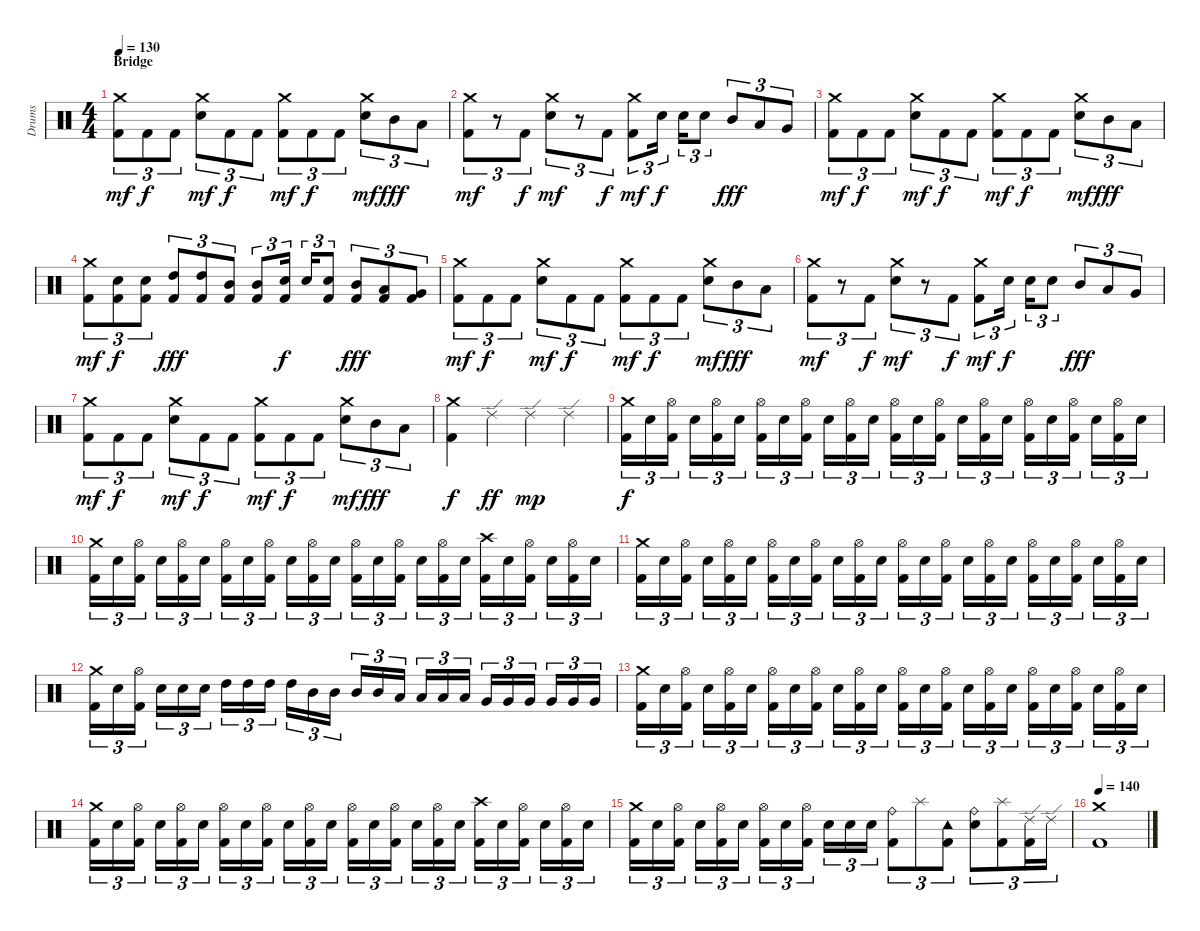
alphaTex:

\track ("Drums" "Drums") {instrument percussion}
\staff {score}
\articulation defaults
\ts (4 4)
\section ("" "Bridge")
\tempo 130
\clef neutral
\ks c
("Kick (hit) 2" "Crash medium (hit)").8{tu (3 2) dy mf volume 10} "Kick (hit) 2".8{tu (3 2) dy f} "Kick (hit) 2".8{tu (3 2)} ("Electric Snare (hit)" "Crash medium (hit)").8{tu (3 2) dy mf} "Kick (hit) 2".8{tu (3 2) dy f} "Kick (hit) 2".8{tu (3 2)} ("Kick (hit) 2" "Crash medium (hit)").8{tu (3 2) dy mf} "Kick (hit) 2".8{tu (3 2) dy f} "Kick (hit) 2".8{tu (3 2)} ("Electric Snare (hit)" "Crash medium (hit)").8{tu (3 2) dy mf} "Mid Tom (hit)".8{tu (3 2) dy fff} "Low Tom (hit)".8{tu (3 2)} |
("Kick (hit) 2" "Crash medium (hit)").8{tu (3 2) dy mf} r.8{tu (3 2)} "Kick (hit) 2".8{tu (3 2) dy f} ("Electric Snare (hit)" "Crash medium (hit)").8{tu (3 2) dy mf} r.8{tu (3 2)} "Kick (hit) 2".8{tu (3 2) dy f} ("Kick (hit) 2" "Crash medium (hit)").8{tu (3 2) dy mf} "Electric Snare (hit)".16{tu (3 2) dy f} "Electric Snare (hit)".16{tu (3 2)} "Electric Snare (hit)".8{tu (3 2)} "Mid Tom (hit)".8{tu (3 2) dy fff} "Low Tom (hit)".8{tu (3 2)} "Very Low Tom (hit)".8{tu (3 2)} |
("Kick (hit) 2" "Crash medium (hit)").8{tu (3 2) dy mf} "Kick (hit) 2".8{tu (3 2) dy f} "Kick (hit) 2".8{tu (3 2)} ("Electric Snare (hit)" "Crash medium (hit)").8{tu (3 2) dy mf} "Kick (hit) 2".8{tu (3 2) dy f} "Kick (hit) 2".8{tu (3 2)} ("Kick (hit) 2" "Crash medium (hit)").8{tu (3 2) dy mf} "Kick (hit) 2".8{tu (3 2) dy f} "Kick (hit) 2".8{tu (3 2)} ("Electric Snare (hit)" "Crash medium (hit)").8{tu (3 2) dy mf} "Mid Tom (hit)".8{tu (3 2) dy fff} "Low Tom (hit)".8{tu (3 2)} |
("Kick (hit) 2" "Crash medium (hit)").8{tu (3 2) dy mf} ("Kick (hit) 2" "Electric Snare (hit)").8{tu (3 2) dy f} ("Kick (hit) 2" "Electric Snare (hit)").8{tu (3 2)} ("Kick (hit) 2" "High Tom (hit)").8{tu (3 2) dy fff} ("Kick (hit) 2" "High Tom (hit)").8{tu (3 2)} ("Kick (hit) 2" "Mid Tom (hit)").8{tu (3 2)} ("Kick (hit) 2" "Mid Tom (hit)").8{tu (3 2)} ("Kick (hit) 2" "Electric Snare (hit)").16{tu (3 2) dy f} "Electric Snare (hit)".16{tu (3 2)} ("Kick (hit) 2" "Electric Snare (hit)").8{tu (3 2)} ("Kick (hit) 2" "Mid Tom (hit)").8{tu (3 2) dy fff} ("Kick (hit) 2" "Low Tom (hit)").8{tu (3 2)} ("Kick (hit) 2" "Very Low Tom (hit)").8{tu (3 2)} |
("Kick (hit) 2" "Crash medium (hit)").8{tu (3 2) dy mf} "Kick (hit) 2".8{tu (3 2) dy f} "Kick (hit) 2".8{tu (3 2)} ("Electric Snare (hit)" "Crash medium (hit)").8{tu (3 2) dy mf} "Kick (hit) 2".8{tu (3 2) dy f} "Kick (hit) 2".8{tu (3 2)} ("Kick (hit) 2" "Crash medium (hit)").8{tu (3 2) dy mf} "Kick (hit) 2".8{tu (3 2) dy f} "Kick (hit) 2".8{tu (3 2)} ("Electric Snare (hit)" "Crash medium (hit)").8{tu (3 2) dy mf} "Mid Tom (hit)".8{tu (3 2) dy fff} "Low Tom (hit)".8{tu (3 2)} |
("Kick (hit) 2" "Crash medium (hit)").8{tu (3 2) dy mf} r.8{tu (3 2)} "Kick (hit) 2".8{tu (3 2) dy f} ("Electric Snare (hit)" "Crash medium (hit)").8{tu (3 2) dy mf} r.8{tu (3 2)} "Kick (hit) 2".8{tu (3 2) dy f} ("Kick (hit) 2" "Crash medium (hit)").8{tu (3 2) dy mf} "Electric Snare (hit)".16{tu (3 2) dy f} "Electric Snare (hit)".16{tu (3 2)} "Electric Snare (hit)".8{tu (3 2)} "Mid Tom (hit)".8{tu (3 2) dy fff} "Low Tom (hit)".8{tu (3 2)} "Very Low Tom (hit)".8{tu (3 2)} |
("Kick (hit) 2" "Crash medium (hit)").8{tu (3 2) dy mf} "Kick (hit) 2".8{tu (3 2) dy f} "Kick (hit) 2".8{tu (3 2)} ("Electric Snare (hit)" "Crash medium (hit)").8{tu (3 2) dy mf} "Kick (hit) 2".8{tu (3 2) dy f} "Kick (hit) 2".8{tu (3 2)} ("Kick (hit) 2" "Crash medium (hit)").8{tu (3 2) dy mf} "Kick (hit) 2".8{tu (3 2) dy f} "Kick (hit) 2".8{tu (3 2)} ("Electric Snare (hit)" "Crash medium (hit)").8{tu (3 2) dy mf} "Mid Tom (hit)".8{tu (3 2) dy fff} "Low Tom (hit)".8{tu (3 2)} |
("Kick (hit) 2" "Crash medium (hit)").4{dy f} "Ride (edge) 2".4{dy ff} "Ride (edge) 2".4{dy mp volume 16} "Ride (edge) 2".4 |
("Kick (hit) 2" "Crash medium (hit)").16{tu (3 2) dy f} "Electric Snare (hit)".16{tu (3 2)} ("Kick (hit) 2" "Hi-Hat (open)").16{tu (3 2)} "Electric Snare (hit)".16{tu (3 2)} ("Kick (hit) 2" "Hi-Hat (open)").16{tu (3 2)} "Electric Snare (hit)".16{tu (3 2)} ("Kick (hit) 2" "Hi-Hat (open)").16{tu (3 2)} "Electric Snare (hit)".16{tu (3 2)} ("Kick (hit) 2" "Hi-Hat (open)").16{tu (3 2)} "Electric Snare (hit)".16{tu (3 2)} ("Kick (hit) 2" "Hi-Hat (open)").16{tu (3 2)} "Electric Snare (hit)".16{tu (3 2)} ("Kick (hit) 2" "Hi-Hat (open)").16{tu (3 2)} "Electric Snare (hit)".16{tu (3 2)} ("Kick (hit) 2" "Hi-Hat (open)").16{tu (3 2)} "Electric Snare (hit)".16{tu (3 2)} ("Kick (hit) 2" "Hi-Hat (open)").16{tu (3 2)} "Electric Snare (hit)".16{tu (3 2)} ("Kick (hit) 2" "Hi-Hat (open)").16{tu (3 2)} "Electric Snare (hit)".16{tu (3 2)} ("Kick (hit) 2" "Hi-Hat (open)").16{tu (3 2)} "Electric Snare (hit)".16{tu (3 2)} ("Kick (hit) 2" "Hi-Hat (open)").16{tu (3 2)} "Electric Snare (hit)".16{tu (3 2)} |
("Kick (hit) 2" "Crash medium (hit)").16{tu (3 2)} "Electric Snare (hit)".16{tu (3 2)} ("Kick (hit) 2" "Hi-Hat (open)").16{tu (3 2)} "Electric Snare (hit)".16{tu (3 2)} ("Kick (hit) 2" "Hi-Hat (open)").16{tu (3 2)} "Electric Snare (hit)".16{tu (3 2)} ("Kick (hit) 2" "Hi-Hat (open)").16{tu (3 2)} "Electric Snare (hit)".16{tu (3 2)} ("Kick (hit) 2" "Hi-Hat (open)").16{tu (3 2)} "Electric Snare (hit)".16{tu (3 2)} ("Kick (hit) 2" "Hi-Hat (open)").16{tu (3 2)} "Electric Snare (hit)".16{tu (3 2)} ("Kick (hit) 2" "Hi-Hat (open)").16{tu (3 2)} "Electric Snare (hit)".16{tu (3 2)} ("Kick (hit) 2" "Hi-Hat (open)").16{tu (3 2)} "Electric Snare (hit)".16{tu (3 2)} ("Kick (hit) 2" "Hi-Hat (open)").16{tu (3 2)} "Electric Snare (hit)".16{tu (3 2)} ("Kick (hit) 2" "Crash high (hit)").16{tu (3 2)} "Electric Snare (hit)".16{tu (3 2)} ("Kick (hit) 2" "Hi-Hat (open)").16{tu (3 2)} "Electric Snare (hit)".16{tu (3 2)} ("Kick (hit) 2" "Hi-Hat (open)").16{tu (3 2)} "Electric Snare (hit)".16{tu (3 2)} |
("Kick (hit) 2" "Crash medium (hit)").16{tu (3 2)} "Electric Snare (hit)".16{tu (3 2)} ("Kick (hit) 2" "Hi-Hat (open)").16{tu (3 2)} "Electric Snare (hit)".16{tu (3 2)} ("Kick (hit) 2" "Hi-Hat (open)").16{tu (3 2)} "Electric Snare (hit)".16{tu (3 2)} ("Kick (hit) 2" "Hi-Hat (open)").16{tu (3 2)} "Electric Snare (hit)".16{tu (3 2)} ("Kick (hit) 2" "Hi-Hat (open)").16{tu (3 2)} "Electric Snare (hit)".16{tu (3 2)} ("Kick (hit) 2" "Hi-Hat (open)").16{tu (3 2)} "Electric Snare (hit)".16{tu (3 2)} ("Kick (hit) 2" "Hi-Hat (open)").16{tu (3 2)} "Electric Snare (hit)".16{tu (3 2)} ("Kick (hit) 2" "Hi-Hat (open)").16{tu (3 2)} "Electric Snare (hit)".16{tu (3 2)} ("Kick (hit) 2" "Hi-Hat (open)").16{tu (3 2)} "Electric Snare (hit)".16{tu (3 2)} ("Kick (hit) 2" "Hi-Hat (open)").16{tu (3 2)} "Electric Snare (hit)".16{tu (3 2)} ("Kick (hit) 2" "Hi-Hat (open)").16{tu (3 2)} "Electric Snare (hit)".16{tu (3 2)} ("Kick (hit) 2" "Hi-Hat (open)").16{tu (3 2)} "Electric Snare (hit)".16{tu (3 2)} |
("Kick (hit) 2" "Crash medium (hit)").16{tu (3 2)} "Electric Snare (hit)".16{tu (3 2)} ("Kick (hit) 2" "Hi-Hat (open)").16{tu (3 2)} "Electric Snare (hit)".16{tu (3 2)} "Electric Snare (hit)".16{tu (3 2)} "Electric Snare (hit)".16{tu (3 2)} "High Tom (hit)".16{tu (3 2)} "High Tom (hit)".16{tu (3 2)} "High Tom (hit)".16{tu (3 2)} "High Tom (hit)".16{tu (3 2)} "Mid Tom (hit)".16{tu (3 2)} "Mid Tom (hit)".16{tu (3 2)} "Mid Tom (hit)".16{tu (3 2)} "Mid Tom (hit)".16{tu (3 2)} "Low Tom (hit)".16{tu (3 2)} "Low Tom (hit)".16{tu (3 2)} "Low Tom (hit)".16{tu (3 2)} "Low Tom (hit)".16{tu (3 2)} "Very Low Tom (hit)".16{tu (3 2)} "Very Low Tom (hit)".16{tu (3 2)} "Very Low Tom (hit)".16{tu (3 2)} "Very Low Tom (hit)".16{tu (3 2)} "Very Low Tom (hit)".16{tu (3 2)} "Very Low Tom (hit)".16{tu (3 2)} |
("Kick (hit) 2" "Crash medium (hit)").16{tu (3 2)} "Electric Snare (hit)".16{tu (3 2)} ("Kick (hit) 2" "Hi-Hat (open)").16{tu (3 2)} "Electric Snare (hit)".16{tu (3 2)} ("Kick (hit) 2" "Hi-Hat (open)").16{tu (3 2)} "Electric Snare (hit)".16{tu (3 2)} ("Kick (hit) 2" "Hi-Hat (open)").16{tu (3 2)} "Electric Snare (hit)".16{tu (3 2)} ("Kick (hit) 2" "Hi-Hat (open)").16{tu (3 2)} "Electric Snare (hit)".16{tu (3 2)} ("Kick (hit) 2" "Hi-Hat (open)").16{tu (3 2)} "Electric Snare (hit)".16{tu (3 2)} ("Kick (hit) 2" "Hi-Hat (open)").16{tu (3 2)} "Electric Snare (hit)".16{tu (3 2)} ("Kick (hit) 2" "Hi-Hat (open)").16{tu (3 2)} "Electric Snare (hit)".16{tu (3 2)} ("Kick (hit) 2" "Hi-Hat (open)").16{tu (3 2)} "Electric Snare (hit)".16{tu (3 2)} ("Kick (hit) 2" "Hi-Hat (open)").16{tu (3 2)} "Electric Snare (hit)".16{tu (3 2)} ("Kick (hit) 2" "Hi-Hat (open)").16{tu (3 2)} "Electric Snare (hit)".16{tu (3 2)} ("Kick (hit) 2" "Hi-Hat (open)").16{tu (3 2)} "Electric Snare (hit)".16{tu (3 2)} |
("Kick (hit) 2" "Crash medium (hit)").16{tu (3 2)} "Electric Snare (hit)".16{tu (3 2)} ("Kick (hit) 2" "Hi-Hat (open)").16{tu (3 2)} "Electric Snare (hit)".16{tu (3 2)} ("Kick (hit) 2" "Hi-Hat (open)").16{tu (3 2)} "Electric Snare (hit)".16{tu (3 2)} ("Kick (hit) 2" "Hi-Hat (open)").16{tu (3 2)} "Electric Snare (hit)".16{tu (3 2)} ("Kick (hit) 2" "Hi-Hat (open)").16{tu (3 2)} "Electric Snare (hit)".16{tu (3 2)} ("Kick (hit) 2" "Hi-Hat (open)").16{tu (3 2)} "Electric Snare (hit)".16{tu (3 2)} ("Kick (hit) 2" "Hi-Hat (open)").16{tu (3 2)} "Electric Snare (hit)".16{tu (3 2)} ("Kick (hit) 2" "Hi-Hat (open)").16{tu (3 2)} "Electric Snare (hit)".16{tu (3 2)} ("Kick (hit) 2" "Hi-Hat (open)").16{tu (3 2)} "Electric Snare (hit)".16{tu (3 2)} ("Kick (hit) 2" "Crash high (hit)").16{tu (3 2)} "Electric Snare (hit)".16{tu (3 2)} ("Kick (hit) 2" "Hi-Hat (open)").16{tu (3 2)} "Electric Snare (hit)".16{tu (3 2)} ("Kick (hit) 2" "Hi-Hat (open)").16{tu (3 2)} "Electric Snare (hit)".16{tu (3 2)} |
("Kick (hit) 2" "Crash medium (hit)").16{tu (3 2)} "Electric Snare (hit)".16{tu (3 2)} ("Kick (hit) 2" "Hi-Hat (open)").16{tu (3 2)} "Electric Snare (hit)".16{tu (3 2)} ("Kick (hit) 2" "Hi-Hat (open)").16{tu (3 2)} "Electric Snare (hit)".16{tu (3 2)} ("Kick (hit) 2" "Hi-Hat (open)").16{tu (3 2)} "Electric Snare (hit)".16{tu (3 2)} ("Kick (hit) 2" "Hi-Hat (open)").16{tu (3 2)} "Electric Snare (hit)".16{tu (3 2)} "Electric Snare (hit)".16{tu (3 2)} "Electric Snare (hit)".16{tu (3 2)} ("Kick (hit) 2" "Ride (bell)").8{tu (3 2)} "Splash (hit)".8{tu (3 2)} ("Kick (hit) 2" "Tambourine (hit)").8{tu (3 2)} ("Electric Snare (hit)" "Ride (bell)").8{tu (3 2)} ("Kick (hit) 2" "Splash (hit)").8{tu (3 2)} ("Kick (hit) 2" "Ride (edge) 2").16{tu (3 2)} "Ride (edge) 2".16{tu (3 2)} |
\tempo 140
("Kick (hit) 2" "Crash medium (hit)").1
